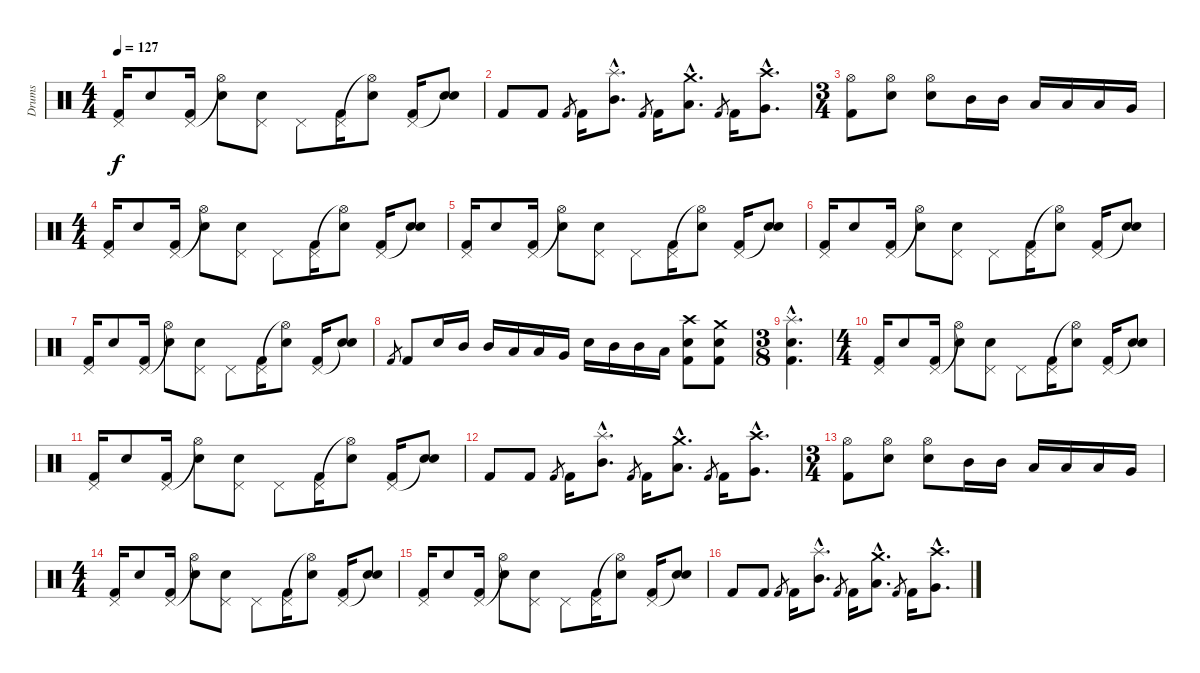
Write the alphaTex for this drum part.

\track ("Drums" "Drums") {instrument percussion}
\staff {score}
\articulation defaults
\ts (4 4)
\tempo 127
\clef neutral
\ks c
("Pedal Hi-Hat (hit)" "Kick (hit) 2").16{dy f} "Electric Snare (hit)".8 ("Pedal Hi-Hat (hit)" "Kick (hit) 2").16 ("Hi-Hat (open)"{t} "Electric Snare (hit)").8 ("Pedal Hi-Hat (hit)" "Electric Snare (hit)").8 "Pedal Hi-Hat (hit)".8 ("Pedal Hi-Hat (hit)" "Kick (hit) 2").16 ("Hi-Hat (open)"{t} "Electric Snare (hit)").8 ("Pedal Hi-Hat (hit)" "Kick (hit) 2").16 ("Snare (hit)"{t} "Electric Snare (hit)").8 |
"Kick (hit) 2".8 "Kick (hit) 2".8 "Kick (hit) 2".8{gr} "Kick (hit) 2".16 ("Splash (hit)"{hac} "Mid Tom (hit)"{hac}).8{d} "Kick (hit) 2".8{gr} "Kick (hit) 2".16 ("Crash medium (hit)"{hac} "Low Tom (hit)"{hac}).8{d} "Kick (hit) 2".8{gr} "Kick (hit) 2".16 ("Crash high (hit)"{hac} "Very Low Tom (hit)"{hac}).8{d} |
\ts (3 4)
("Hi-Hat (open)" "Kick (hit) 2").8 ("Hi-Hat (open)" "Electric Snare (hit)").8 ("Hi-Hat (open)" "Electric Snare (hit)").8 "Mid Tom (hit)".16 "Mid Tom (hit)".16 "Low Tom (hit)".16 "Low Tom (hit)".16 "Low Tom (hit)".16 "Very Low Tom (hit)".16 |
\ts (4 4)
("Pedal Hi-Hat (hit)" "Kick (hit) 2").16 "Electric Snare (hit)".8 ("Pedal Hi-Hat (hit)" "Kick (hit) 2").16 ("Hi-Hat (open)"{t} "Electric Snare (hit)").8 ("Pedal Hi-Hat (hit)" "Electric Snare (hit)").8 "Pedal Hi-Hat (hit)".8 ("Pedal Hi-Hat (hit)" "Kick (hit) 2").16 ("Hi-Hat (open)"{t} "Electric Snare (hit)").8 ("Pedal Hi-Hat (hit)" "Kick (hit) 2").16 ("Snare (hit)"{t} "Electric Snare (hit)").8 |
("Pedal Hi-Hat (hit)" "Kick (hit) 2").16 "Electric Snare (hit)".8 ("Pedal Hi-Hat (hit)" "Kick (hit) 2").16 ("Hi-Hat (open)"{t} "Electric Snare (hit)").8 ("Pedal Hi-Hat (hit)" "Electric Snare (hit)").8 "Pedal Hi-Hat (hit)".8 ("Pedal Hi-Hat (hit)" "Kick (hit) 2").16 ("Hi-Hat (open)"{t} "Electric Snare (hit)").8 ("Pedal Hi-Hat (hit)" "Kick (hit) 2").16 ("Snare (hit)"{t} "Electric Snare (hit)").8 |
("Pedal Hi-Hat (hit)" "Kick (hit) 2").16 "Electric Snare (hit)".8 ("Pedal Hi-Hat (hit)" "Kick (hit) 2").16 ("Hi-Hat (open)"{t} "Electric Snare (hit)").8 ("Pedal Hi-Hat (hit)" "Electric Snare (hit)").8 "Pedal Hi-Hat (hit)".8 ("Pedal Hi-Hat (hit)" "Kick (hit) 2").16 ("Hi-Hat (open)"{t} "Electric Snare (hit)").8 ("Pedal Hi-Hat (hit)" "Kick (hit) 2").16 ("Snare (hit)"{t} "Electric Snare (hit)").8 |
("Pedal Hi-Hat (hit)" "Kick (hit) 2").16 "Electric Snare (hit)".8 ("Pedal Hi-Hat (hit)" "Kick (hit) 2").16 ("Hi-Hat (open)"{t} "Electric Snare (hit)").8 ("Pedal Hi-Hat (hit)" "Electric Snare (hit)").8 "Pedal Hi-Hat (hit)".8 ("Pedal Hi-Hat (hit)" "Kick (hit) 2").16 ("Hi-Hat (open)"{t} "Electric Snare (hit)").8 ("Pedal Hi-Hat (hit)" "Kick (hit) 2").16 ("Snare (hit)"{t} "Electric Snare (hit)").8 |
"Kick (hit) 2".8{gr} "Kick (hit) 2".8 "Electric Snare (hit)".16 "Mid Tom (hit)".16 "Mid Tom (hit)".16 "Low Tom (hit)".16 "Low Tom (hit)".16 "Very Low Tom (hit)".16 "Electric Snare (hit)".16 "Mid Tom (hit)".16 "Mid Tom (hit)".16 "Low Tom (hit)".16 ("Crash high (hit)" "Electric Snare (hit)" "Kick (hit) 2").8 ("Crash medium (hit)" "Electric Snare (hit)" "Kick (hit) 2").8 |
\ts (3 8)
("Splash (hit)"{hac} "Electric Snare (hit)"{hac} "Kick (hit) 2"{hac}).4{d} |
\ts (4 4)
("Pedal Hi-Hat (hit)" "Kick (hit) 2").16 "Electric Snare (hit)".8 ("Pedal Hi-Hat (hit)" "Kick (hit) 2").16 ("Hi-Hat (open)"{t} "Electric Snare (hit)").8 ("Pedal Hi-Hat (hit)" "Electric Snare (hit)").8 "Pedal Hi-Hat (hit)".8 ("Pedal Hi-Hat (hit)" "Kick (hit) 2").16 ("Hi-Hat (open)"{t} "Electric Snare (hit)").8 ("Pedal Hi-Hat (hit)" "Kick (hit) 2").16 ("Snare (hit)"{t} "Electric Snare (hit)").8 |
("Pedal Hi-Hat (hit)" "Kick (hit) 2").16 "Electric Snare (hit)".8 ("Pedal Hi-Hat (hit)" "Kick (hit) 2").16 ("Hi-Hat (open)"{t} "Electric Snare (hit)").8 ("Pedal Hi-Hat (hit)" "Electric Snare (hit)").8 "Pedal Hi-Hat (hit)".8 ("Pedal Hi-Hat (hit)" "Kick (hit) 2").16 ("Hi-Hat (open)"{t} "Electric Snare (hit)").8 ("Pedal Hi-Hat (hit)" "Kick (hit) 2").16 ("Snare (hit)"{t} "Electric Snare (hit)").8 |
"Kick (hit) 2".8 "Kick (hit) 2".8 "Kick (hit) 2".8{gr} "Kick (hit) 2".16 ("Splash (hit)"{hac} "Mid Tom (hit)"{hac}).8{d} "Kick (hit) 2".8{gr} "Kick (hit) 2".16 ("Crash medium (hit)"{hac} "Low Tom (hit)"{hac}).8{d} "Kick (hit) 2".8{gr} "Kick (hit) 2".16 ("Crash high (hit)"{hac} "Very Low Tom (hit)"{hac}).8{d} |
\ts (3 4)
("Hi-Hat (open)" "Kick (hit) 2").8 ("Hi-Hat (open)" "Electric Snare (hit)").8 ("Hi-Hat (open)" "Electric Snare (hit)").8 "Mid Tom (hit)".16 "Mid Tom (hit)".16 "Low Tom (hit)".16 "Low Tom (hit)".16 "Low Tom (hit)".16 "Very Low Tom (hit)".16 |
\ts (4 4)
("Pedal Hi-Hat (hit)" "Kick (hit) 2").16 "Electric Snare (hit)".8 ("Pedal Hi-Hat (hit)" "Kick (hit) 2").16 ("Hi-Hat (open)"{t} "Electric Snare (hit)").8 ("Pedal Hi-Hat (hit)" "Electric Snare (hit)").8 "Pedal Hi-Hat (hit)".8 ("Pedal Hi-Hat (hit)" "Kick (hit) 2").16 ("Hi-Hat (open)"{t} "Electric Snare (hit)").8 ("Pedal Hi-Hat (hit)" "Kick (hit) 2").16 ("Snare (hit)"{t} "Electric Snare (hit)").8 |
("Pedal Hi-Hat (hit)" "Kick (hit) 2").16 "Electric Snare (hit)".8 ("Pedal Hi-Hat (hit)" "Kick (hit) 2").16 ("Hi-Hat (open)"{t} "Electric Snare (hit)").8 ("Pedal Hi-Hat (hit)" "Electric Snare (hit)").8 "Pedal Hi-Hat (hit)".8 ("Pedal Hi-Hat (hit)" "Kick (hit) 2").16 ("Hi-Hat (open)"{t} "Electric Snare (hit)").8 ("Pedal Hi-Hat (hit)" "Kick (hit) 2").16 ("Snare (hit)"{t} "Electric Snare (hit)").8 |
"Kick (hit) 2".8 "Kick (hit) 2".8 "Kick (hit) 2".8{gr} "Kick (hit) 2".16 ("Splash (hit)"{hac} "Mid Tom (hit)"{hac}).8{d} "Kick (hit) 2".8{gr} "Kick (hit) 2".16 ("Crash medium (hit)"{hac} "Low Tom (hit)"{hac}).8{d} "Kick (hit) 2".8{gr} "Kick (hit) 2".16 ("Crash high (hit)"{hac} "Very Low Tom (hit)"{hac}).8{d}
